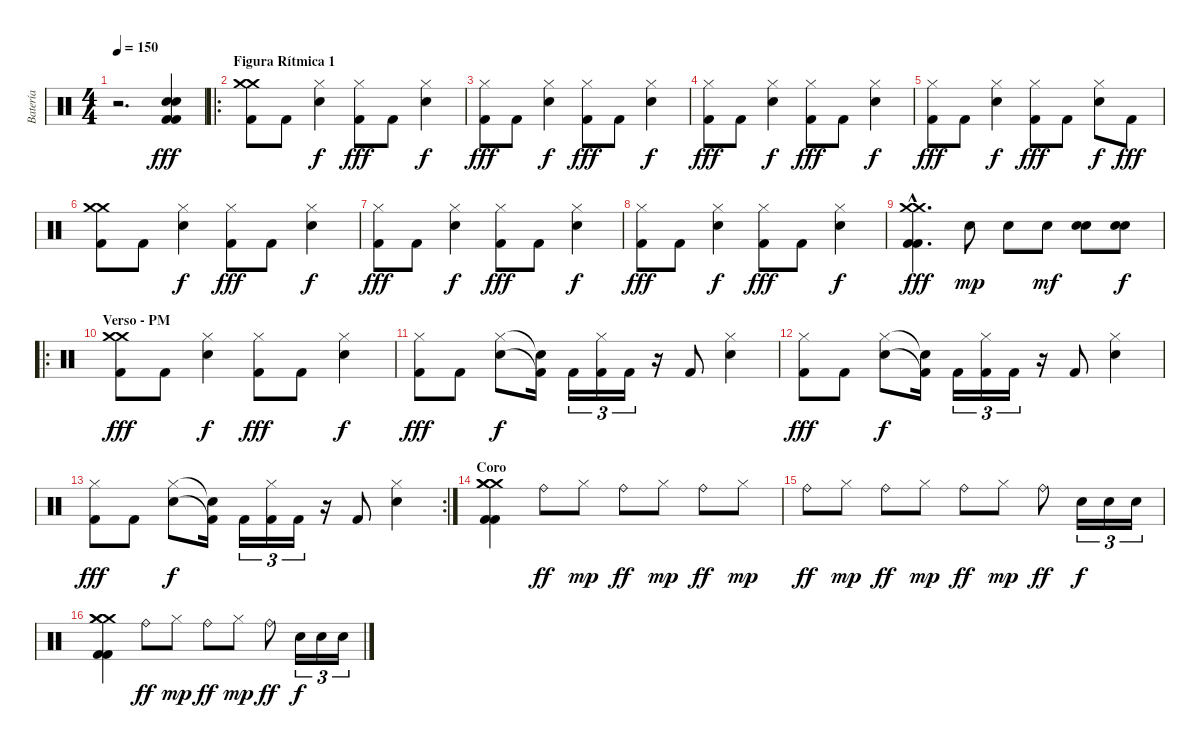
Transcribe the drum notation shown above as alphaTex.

\track ("Batería" "Batería") {instrument percussion}
\staff {score}
\articulation defaults
\ts (4 4)
\tempo 150
\clef neutral
\ks c
r.2{d dy fff} ("Electric Snare (hit)" "Electric Snare (hit)" "Kick (hit) 2" "Kick (hit) 2").4 |
\ro
\section ("" "Figura Rítmica 1")
("Crash medium (hit)" "Crash medium (hit)" "Kick (hit) 2").8 "Kick (hit) 2".8 ("Hi-Hat (closed)" "Electric Snare (hit)").4{dy f} ("Hi-Hat (closed)" "Kick (hit) 2").8{dy fff} "Kick (hit) 2".8 ("Hi-Hat (closed)" "Electric Snare (hit)").4{dy f} |
("Hi-Hat (closed)" "Kick (hit) 2").8{dy fff} "Kick (hit) 2".8 ("Hi-Hat (closed)" "Electric Snare (hit)").4{dy f} ("Hi-Hat (closed)" "Kick (hit) 2").8{dy fff} "Kick (hit) 2".8 ("Hi-Hat (closed)" "Electric Snare (hit)").4{dy f} |
("Hi-Hat (closed)" "Kick (hit) 2").8{dy fff} "Kick (hit) 2".8 ("Hi-Hat (closed)" "Electric Snare (hit)").4{dy f} ("Hi-Hat (closed)" "Kick (hit) 2").8{dy fff} "Kick (hit) 2".8 ("Hi-Hat (closed)" "Electric Snare (hit)").4{dy f} |
("Hi-Hat (closed)" "Kick (hit) 2").8{dy fff} "Kick (hit) 2".8 ("Hi-Hat (closed)" "Electric Snare (hit)").4{dy f} ("Hi-Hat (closed)" "Kick (hit) 2").8{dy fff} "Kick (hit) 2".8 ("Hi-Hat (closed)" "Electric Snare (hit)").8{dy f} "Kick (hit) 2".8{dy fff} |
("Crash medium (hit)" "Crash medium (hit)" "Kick (hit) 2").8 "Kick (hit) 2".8 ("Hi-Hat (closed)" "Electric Snare (hit)").4{dy f} ("Hi-Hat (closed)" "Kick (hit) 2").8{dy fff} "Kick (hit) 2".8 ("Hi-Hat (closed)" "Electric Snare (hit)").4{dy f} |
("Hi-Hat (closed)" "Kick (hit) 2").8{dy fff} "Kick (hit) 2".8 ("Hi-Hat (closed)" "Electric Snare (hit)").4{dy f} ("Hi-Hat (closed)" "Kick (hit) 2").8{dy fff} "Kick (hit) 2".8 ("Hi-Hat (closed)" "Electric Snare (hit)").4{dy f} |
("Hi-Hat (closed)" "Kick (hit) 2").8{dy fff} "Kick (hit) 2".8 ("Hi-Hat (closed)" "Electric Snare (hit)").4{dy f} ("Hi-Hat (closed)" "Kick (hit) 2").8{dy fff} "Kick (hit) 2".8 ("Hi-Hat (closed)" "Electric Snare (hit)").4{dy f} |
("Crash medium (hit)"{hac} "Crash medium (hit)"{hac} "Kick (hit) 2"{hac} "Kick (hit) 2"{hac}).4{d dy fff} "Electric Snare (hit)".8{dy mp} "Electric Snare (hit)".8 "Electric Snare (hit)".8{dy mf} ("Electric Snare (hit)" "Electric Snare (hit)").8 ("Electric Snare (hit)" "Electric Snare (hit)").8{dy f} |
\ro
\section ("" "Verso - PM")
("Crash medium (hit)" "Crash medium (hit)" "Kick (hit) 2").8{dy fff} "Kick (hit) 2".8 ("Hi-Hat (closed)" "Electric Snare (hit)").4{dy f} ("Hi-Hat (closed)" "Kick (hit) 2").8{dy fff} "Kick (hit) 2".8 ("Hi-Hat (closed)" "Electric Snare (hit)").4{dy f} |
("Hi-Hat (closed)" "Kick (hit) 2").8{dy fff} "Kick (hit) 2".8 ("Hi-Hat (closed)" "Electric Snare (hit)").8{dy f} ("Snare (hit)"{t} "Kick (hit) 2"{t}).16 "Kick (hit) 2".16{tu (3 2)} ("Hi-Hat (closed)" "Kick (hit) 2").16{tu (3 2)} "Kick (hit) 2".16{tu (3 2)} r.16 "Kick (hit) 2".8 ("Hi-Hat (closed)" "Electric Snare (hit)").4 |
("Hi-Hat (closed)" "Kick (hit) 2").8{dy fff} "Kick (hit) 2".8 ("Hi-Hat (closed)" "Electric Snare (hit)").8{dy f} ("Snare (hit)"{t} "Kick (hit) 2"{t}).16 "Kick (hit) 2".16{tu (3 2)} ("Hi-Hat (closed)" "Kick (hit) 2").16{tu (3 2)} "Kick (hit) 2".16{tu (3 2)} r.16 "Kick (hit) 2".8 ("Hi-Hat (closed)" "Electric Snare (hit)").4 |
\rc 2
("Hi-Hat (closed)" "Kick (hit) 2").8{dy fff} "Kick (hit) 2".8 ("Hi-Hat (closed)" "Electric Snare (hit)").8{dy f} ("Snare (hit)"{t} "Kick (hit) 2"{t}).16 "Kick (hit) 2".16{tu (3 2)} ("Hi-Hat (closed)" "Kick (hit) 2").16{tu (3 2)} "Kick (hit) 2".16{tu (3 2)} r.16 "Kick (hit) 2".8 ("Hi-Hat (closed)" "Electric Snare (hit)").4 |
\section ("" "Coro")
("Crash medium (hit)" "Crash medium (hit)" "Crash medium (hit)" "Kick (hit) 2" "Kick (hit) 2").4 "Ride (bell)".8{dy ff} "Hi-Hat (closed)".8{dy mp} "Ride (bell)".8{dy ff} "Hi-Hat (closed)".8{dy mp} "Ride (bell)".8{dy ff} "Hi-Hat (closed)".8{dy mp} |
"Ride (bell)".8{dy ff} "Hi-Hat (closed)".8{dy mp} "Ride (bell)".8{dy ff} "Hi-Hat (closed)".8{dy mp} "Ride (bell)".8{dy ff} "Hi-Hat (closed)".8{dy mp} "Ride (bell)".8{dy ff} "Electric Snare (hit)".16{tu (3 2) dy f} "Electric Snare (hit)".16{tu (3 2)} "Electric Snare (hit)".16{tu (3 2)} |
("Crash medium (hit)" "Crash medium (hit)" "Crash medium (hit)" "Kick (hit) 2" "Kick (hit) 2").4 "Ride (bell)".8{dy ff} "Hi-Hat (closed)".8{dy mp} "Ride (bell)".8{dy ff} "Hi-Hat (closed)".8{dy mp} "Ride (bell)".8{dy ff} "Electric Snare (hit)".16{tu (3 2) dy f} "Electric Snare (hit)".16{tu (3 2)} "Electric Snare (hit)".16{tu (3 2)}
